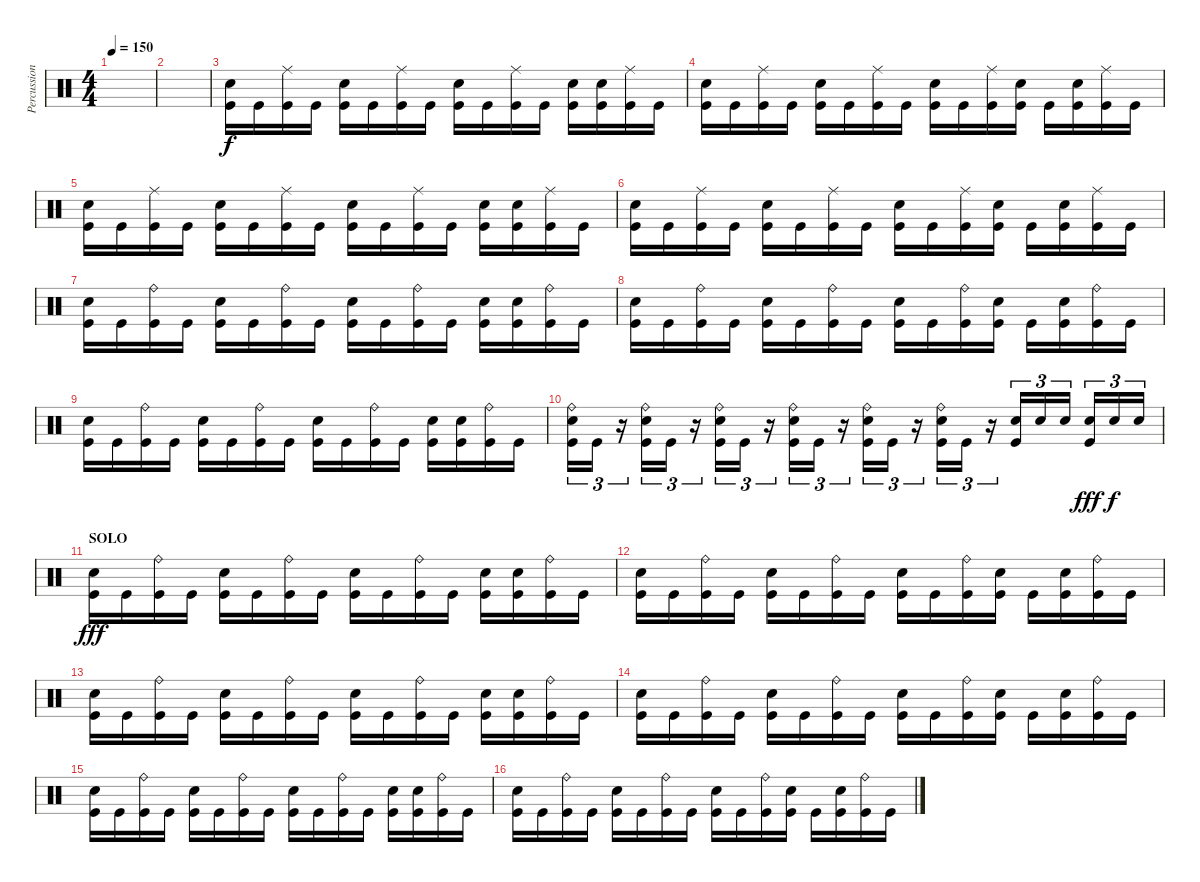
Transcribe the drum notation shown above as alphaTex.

\track ("Percussions" "Percussion") {instrument percussion}
\staff {score}
\articulation defaults
\ts (4 4)
\tempo 150
\clef neutral
\ks c
|
|
("Snare (hit) 2" "Kick (hit)").16 "Kick (hit)".16 ("Ride (middle)" "Kick (hit)").16 "Kick (hit)".16 ("Snare (hit) 2" "Kick (hit)").16 "Kick (hit)".16 ("Ride (middle)" "Kick (hit)").16 "Kick (hit)".16 ("Snare (hit) 2" "Kick (hit)").16 "Kick (hit)".16 ("Ride (middle)" "Kick (hit)").16 "Kick (hit)".16 ("Snare (hit) 2" "Kick (hit)").16 ("Snare (hit) 2" "Kick (hit)").16 ("Ride (middle)" "Kick (hit)").16 "Kick (hit)".16 |
("Snare (hit) 2" "Kick (hit)").16 "Kick (hit)".16 ("Ride (middle)" "Kick (hit)").16 "Kick (hit)".16 ("Snare (hit) 2" "Kick (hit)").16 "Kick (hit)".16 ("Ride (middle)" "Kick (hit)").16 "Kick (hit)".16 ("Snare (hit) 2" "Kick (hit)").16 "Kick (hit)".16 ("Ride (middle)" "Kick (hit)").16 ("Snare (hit) 2" "Kick (hit)").16 "Kick (hit)".16 ("Snare (hit) 2" "Kick (hit)").16 ("Ride (middle)" "Kick (hit)").16 "Kick (hit)".16 |
("Snare (hit) 2" "Kick (hit)").16 "Kick (hit)".16 ("Ride (middle)" "Kick (hit)").16 "Kick (hit)".16 ("Snare (hit) 2" "Kick (hit)").16 "Kick (hit)".16 ("Ride (middle)" "Kick (hit)").16 "Kick (hit)".16 ("Snare (hit) 2" "Kick (hit)").16 "Kick (hit)".16 ("Ride (middle)" "Kick (hit)").16 "Kick (hit)".16 ("Snare (hit) 2" "Kick (hit)").16 ("Snare (hit) 2" "Kick (hit)").16 ("Ride (middle)" "Kick (hit)").16 "Kick (hit)".16 |
("Snare (hit) 2" "Kick (hit)").16 "Kick (hit)".16 ("Ride (middle)" "Kick (hit)").16 "Kick (hit)".16 ("Snare (hit) 2" "Kick (hit)").16 "Kick (hit)".16 ("Ride (middle)" "Kick (hit)").16 "Kick (hit)".16 ("Snare (hit) 2" "Kick (hit)").16 "Kick (hit)".16 ("Ride (middle)" "Kick (hit)").16 ("Snare (hit) 2" "Kick (hit)").16 "Kick (hit)".16 ("Snare (hit) 2" "Kick (hit)").16 ("Ride (middle)" "Kick (hit)").16 "Kick (hit)".16 |
("Snare (hit) 2" "Kick (hit)").16 "Kick (hit)".16 ("Ride (bell)" "Kick (hit)").16 "Kick (hit)".16 ("Snare (hit) 2" "Kick (hit)").16 "Kick (hit)".16 ("Ride (bell)" "Kick (hit)").16 "Kick (hit)".16 ("Snare (hit) 2" "Kick (hit)").16 "Kick (hit)".16 ("Ride (bell)" "Kick (hit)").16 "Kick (hit)".16 ("Snare (hit) 2" "Kick (hit)").16 ("Snare (hit) 2" "Kick (hit)").16 ("Ride (bell)" "Kick (hit)").16 "Kick (hit)".16 |
("Snare (hit) 2" "Kick (hit)").16 "Kick (hit)".16 ("Ride (bell)" "Kick (hit)").16 "Kick (hit)".16 ("Snare (hit) 2" "Kick (hit)").16 "Kick (hit)".16 ("Ride (bell)" "Kick (hit)").16 "Kick (hit)".16 ("Snare (hit) 2" "Kick (hit)").16 "Kick (hit)".16 ("Ride (bell)" "Kick (hit)").16 ("Snare (hit) 2" "Kick (hit)").16 "Kick (hit)".16 ("Snare (hit) 2" "Kick (hit)").16 ("Ride (bell)" "Kick (hit)").16 "Kick (hit)".16 |
("Snare (hit) 2" "Kick (hit)").16 "Kick (hit)".16 ("Ride (bell)" "Kick (hit)").16 "Kick (hit)".16 ("Snare (hit) 2" "Kick (hit)").16 "Kick (hit)".16 ("Ride (bell)" "Kick (hit)").16 "Kick (hit)".16 ("Snare (hit) 2" "Kick (hit)").16 "Kick (hit)".16 ("Ride (bell)" "Kick (hit)").16 "Kick (hit)".16 ("Snare (hit) 2" "Kick (hit)").16 ("Snare (hit) 2" "Kick (hit)").16 ("Ride (bell)" "Kick (hit)").16 "Kick (hit)".16 |
("Ride (bell)" "Snare (hit) 2" "Kick (hit)").16{tu (3 2)} "Kick (hit)".16{tu (3 2)} r.16{tu (3 2)} ("Ride (bell)" "Snare (hit) 2" "Kick (hit)").16{tu (3 2)} "Kick (hit)".16{tu (3 2)} r.16{tu (3 2)} ("Ride (bell)" "Snare (hit) 2" "Kick (hit)").16{tu (3 2)} "Kick (hit)".16{tu (3 2)} r.16{tu (3 2)} ("Ride (bell)" "Snare (hit) 2" "Kick (hit)").16{tu (3 2)} "Kick (hit)".16{tu (3 2)} r.16{tu (3 2)} ("Ride (bell)" "Snare (hit) 2" "Kick (hit)").16{tu (3 2)} "Kick (hit)".16{tu (3 2)} r.16{tu (3 2)} ("Ride (bell)" "Snare (hit) 2" "Kick (hit)").16{tu (3 2)} "Kick (hit)".16{tu (3 2)} r.16{tu (3 2)} ("Snare (hit) 2" "Kick (hit)").16{tu (3 2)} "Snare (hit) 2".16{tu (3 2) dy f} "Snare (hit) 2".16{tu (3 2)} ("Snare (hit) 2" "Kick (hit)").16{tu (3 2) dy fff} "Snare (hit) 2".16{tu (3 2) dy f} "Snare (hit) 2".16{tu (3 2)} |
\section ("" "SOLO")
("Snare (hit) 2" "Kick (hit)").16{dy fff} "Kick (hit)".16 ("Ride (bell)" "Kick (hit)").16 "Kick (hit)".16 ("Snare (hit) 2" "Kick (hit)").16 "Kick (hit)".16 ("Ride (bell)" "Kick (hit)").16 "Kick (hit)".16 ("Snare (hit) 2" "Kick (hit)").16 "Kick (hit)".16 ("Ride (bell)" "Kick (hit)").16 "Kick (hit)".16 ("Snare (hit) 2" "Kick (hit)").16 ("Snare (hit) 2" "Kick (hit)").16 ("Ride (bell)" "Kick (hit)").16 "Kick (hit)".16 |
("Snare (hit) 2" "Kick (hit)").16 "Kick (hit)".16 ("Ride (bell)" "Kick (hit)").16 "Kick (hit)".16 ("Snare (hit) 2" "Kick (hit)").16 "Kick (hit)".16 ("Ride (bell)" "Kick (hit)").16 "Kick (hit)".16 ("Snare (hit) 2" "Kick (hit)").16 "Kick (hit)".16 ("Ride (bell)" "Kick (hit)").16 ("Snare (hit) 2" "Kick (hit)").16 "Kick (hit)".16 ("Snare (hit) 2" "Kick (hit)").16 ("Ride (bell)" "Kick (hit)").16 "Kick (hit)".16 |
("Snare (hit) 2" "Kick (hit)").16 "Kick (hit)".16 ("Ride (bell)" "Kick (hit)").16 "Kick (hit)".16 ("Snare (hit) 2" "Kick (hit)").16 "Kick (hit)".16 ("Ride (bell)" "Kick (hit)").16 "Kick (hit)".16 ("Snare (hit) 2" "Kick (hit)").16 "Kick (hit)".16 ("Ride (bell)" "Kick (hit)").16 "Kick (hit)".16 ("Snare (hit) 2" "Kick (hit)").16 ("Snare (hit) 2" "Kick (hit)").16 ("Ride (bell)" "Kick (hit)").16 "Kick (hit)".16 |
("Snare (hit) 2" "Kick (hit)").16 "Kick (hit)".16 ("Ride (bell)" "Kick (hit)").16 "Kick (hit)".16 ("Snare (hit) 2" "Kick (hit)").16 "Kick (hit)".16 ("Ride (bell)" "Kick (hit)").16 "Kick (hit)".16 ("Snare (hit) 2" "Kick (hit)").16 "Kick (hit)".16 ("Ride (bell)" "Kick (hit)").16 ("Snare (hit) 2" "Kick (hit)").16 "Kick (hit)".16 ("Snare (hit) 2" "Kick (hit)").16 ("Ride (bell)" "Kick (hit)").16 "Kick (hit)".16 |
("Snare (hit) 2" "Kick (hit)").16 "Kick (hit)".16 ("Ride (bell)" "Kick (hit)").16 "Kick (hit)".16 ("Snare (hit) 2" "Kick (hit)").16 "Kick (hit)".16 ("Ride (bell)" "Kick (hit)").16 "Kick (hit)".16 ("Snare (hit) 2" "Kick (hit)").16 "Kick (hit)".16 ("Ride (bell)" "Kick (hit)").16 "Kick (hit)".16 ("Snare (hit) 2" "Kick (hit)").16 ("Snare (hit) 2" "Kick (hit)").16 ("Ride (bell)" "Kick (hit)").16 "Kick (hit)".16 |
("Snare (hit) 2" "Kick (hit)").16 "Kick (hit)".16 ("Ride (bell)" "Kick (hit)").16 "Kick (hit)".16 ("Snare (hit) 2" "Kick (hit)").16 "Kick (hit)".16 ("Ride (bell)" "Kick (hit)").16 "Kick (hit)".16 ("Snare (hit) 2" "Kick (hit)").16 "Kick (hit)".16 ("Ride (bell)" "Kick (hit)").16 ("Snare (hit) 2" "Kick (hit)").16 "Kick (hit)".16 ("Snare (hit) 2" "Kick (hit)").16 ("Ride (bell)" "Kick (hit)").16 "Kick (hit)".16
